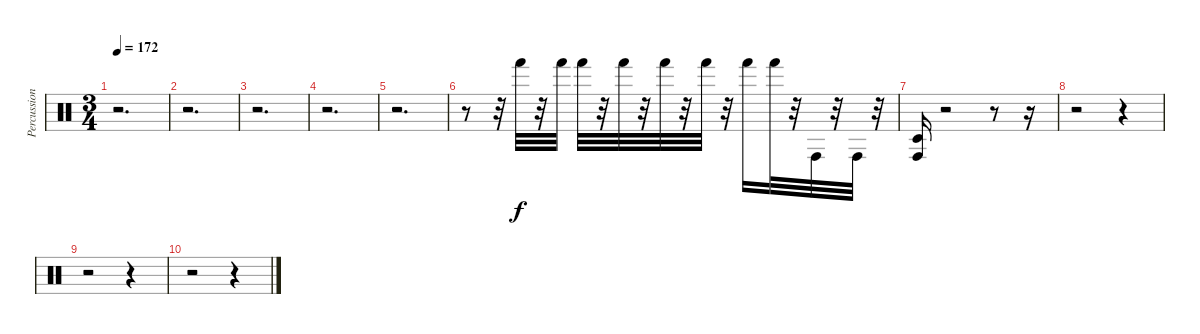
\track ("Percussion" "Percussion") {instrument percussion}
\staff {score}
\articulation defaults
\ts (3 4)
\tempo 172
\clef neutral
\ks c
r.2{d dy f} |
r.2{d} |
r.2{d} |
r.2{d} |
r.2{d} |
r.8 r.32 "Hand (hit)".32 r.32 "Hand (hit)".32 "Hand (hit)".32 r.32 "Hand (hit)".32 r.32 "Hand (hit)".32 r.32 "Hand (hit)".32 r.32 "Hand (hit)".16 "Hand (hit)".32 r.32 "Conga high (hit)".32 r.32 "Conga high (hit)".32 r.32 |
("Conga high (hit)" "Timbale low (hit)").16 r.2 r.8 r.16 |
r.2 r.4 |
r.2 r.4 |
r.2 r.4
